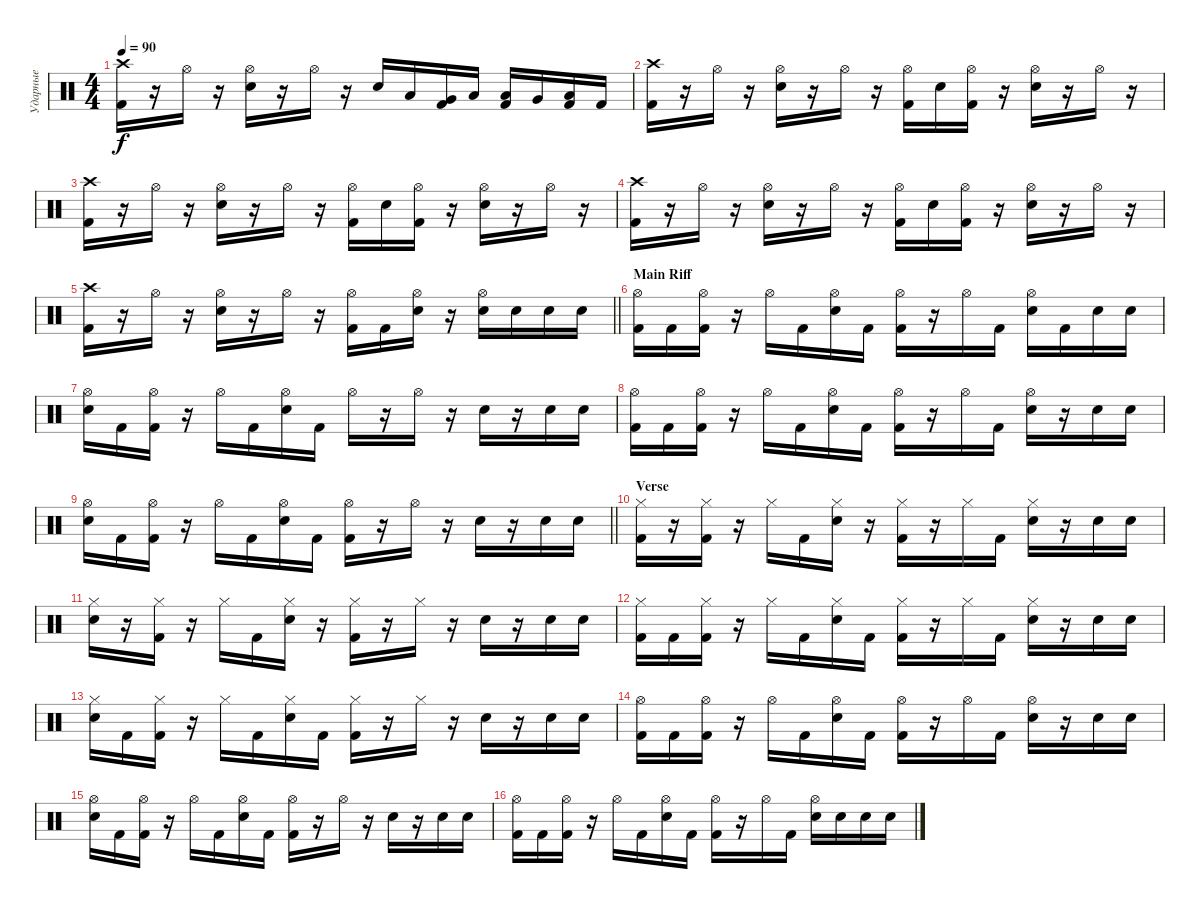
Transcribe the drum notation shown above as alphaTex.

\track ("Ударные" "Ударные") {instrument percussion}
\staff {score}
\articulation defaults
\ts (4 4)
\tempo 90
\clef neutral
\ks c
("Crash high (hit)" "Kick (hit) 2").16{dy f} r.16 "Hi-Hat (open)".16 r.16 ("Hi-Hat (open)" "Snare (hit) 2").16 r.16 "Hi-Hat (open)".16 r.16 "Snare (hit) 2".16 "Low Tom (hit)".16 ("Very Low Tom (hit)" "Kick (hit) 2").16 "Low Floor Tom (hit)".16 ("Low Tom (hit)" "Kick (hit) 2").16 "Very Low Tom (hit)".16 ("Low Floor Tom (hit)" "Kick (hit) 2").16 "Kick (hit) 2".16 |
("Crash high (hit)" "Kick (hit) 2").16 r.16 "Hi-Hat (open)".16 r.16 ("Hi-Hat (open)" "Snare (hit) 2").16 r.16 "Hi-Hat (open)".16 r.16 ("Hi-Hat (open)" "Kick (hit) 2").16 "Snare (hit) 2".16 ("Hi-Hat (open)" "Kick (hit) 2").16 r.16 ("Hi-Hat (open)" "Snare (hit) 2").16 r.16 "Hi-Hat (open)".16 r.16 |
("Crash high (hit)" "Kick (hit) 2").16 r.16 "Hi-Hat (open)".16 r.16 ("Hi-Hat (open)" "Snare (hit) 2").16 r.16 "Hi-Hat (open)".16 r.16 ("Hi-Hat (open)" "Kick (hit) 2").16 "Snare (hit) 2".16 ("Hi-Hat (open)" "Kick (hit) 2").16 r.16 ("Hi-Hat (open)" "Snare (hit) 2").16 r.16 "Hi-Hat (open)".16 r.16 |
("Crash high (hit)" "Kick (hit) 2").16 r.16 "Hi-Hat (open)".16 r.16 ("Hi-Hat (open)" "Snare (hit) 2").16 r.16 "Hi-Hat (open)".16 r.16 ("Hi-Hat (open)" "Kick (hit) 2").16 "Snare (hit) 2".16 ("Hi-Hat (open)" "Kick (hit) 2").16 r.16 ("Hi-Hat (open)" "Snare (hit) 2").16 r.16 "Hi-Hat (open)".16 r.16 |
\barLineRight lightlight
("Crash high (hit)" "Kick (hit) 2").16 r.16 "Hi-Hat (open)".16 r.16 ("Hi-Hat (open)" "Snare (hit) 2").16 r.16 "Hi-Hat (open)".16 r.16 ("Hi-Hat (open)" "Kick (hit) 2").16 "Kick (hit) 2".16 ("Hi-Hat (open)" "Snare (hit) 2").16 r.16 ("Hi-Hat (open)" "Snare (hit) 2").16 "Snare (hit) 2".16 "Snare (hit) 2".16 "Snare (hit) 2".16 |
\section ("" "Main Riff")
("Hi-Hat (open)" "Kick (hit) 2").16 "Kick (hit) 2".16 ("Hi-Hat (open)" "Kick (hit) 2").16 r.16 "Hi-Hat (open)".16 "Kick (hit) 2".16 ("Hi-Hat (open)" "Snare (hit) 2").16 "Kick (hit) 2".16 ("Hi-Hat (open)" "Kick (hit) 2").16 r.16 "Hi-Hat (open)".16 "Kick (hit) 2".16 ("Hi-Hat (open)" "Snare (hit) 2").16 "Kick (hit) 2".16 "Snare (hit) 2".16 "Snare (hit) 2".16 |
("Hi-Hat (open)" "Snare (hit) 2").16 "Kick (hit) 2".16 ("Hi-Hat (open)" "Kick (hit) 2").16 r.16 "Hi-Hat (open)".16 "Kick (hit) 2".16 ("Hi-Hat (open)" "Snare (hit) 2").16 "Kick (hit) 2".16 "Hi-Hat (open)".16 r.16 "Hi-Hat (open)".16 r.16 "Snare (hit) 2".16 r.16 "Snare (hit) 2".16 "Snare (hit) 2".16 |
("Hi-Hat (open)" "Kick (hit) 2").16 "Kick (hit) 2".16 ("Hi-Hat (open)" "Kick (hit) 2").16 r.16 "Hi-Hat (open)".16 "Kick (hit) 2".16 ("Hi-Hat (open)" "Snare (hit) 2").16 "Kick (hit) 2".16 ("Hi-Hat (open)" "Kick (hit) 2").16 r.16 "Hi-Hat (open)".16 "Kick (hit) 2".16 ("Hi-Hat (open)" "Snare (hit) 2").16 r.16 "Snare (hit) 2".16 "Snare (hit) 2".16 |
\barLineRight lightlight
("Hi-Hat (open)" "Snare (hit) 2").16 "Kick (hit) 2".16 ("Hi-Hat (open)" "Kick (hit) 2").16 r.16 "Hi-Hat (open)".16 "Kick (hit) 2".16 ("Hi-Hat (open)" "Snare (hit) 2").16 "Kick (hit) 2".16 ("Hi-Hat (open)" "Kick (hit) 2").16 r.16 "Hi-Hat (open)".16 r.16 "Snare (hit) 2".16 r.16 "Snare (hit) 2".16 "Snare (hit) 2".16 |
\section ("" "Verse")
("Hi-Hat (closed)" "Kick (hit) 2").16 r.16 ("Hi-Hat (closed)" "Kick (hit) 2").16 r.16 "Hi-Hat (closed)".16 "Kick (hit) 2".16 ("Hi-Hat (closed)" "Snare (hit) 2").16 r.16 ("Hi-Hat (closed)" "Kick (hit) 2").16 r.16 "Hi-Hat (closed)".16 "Kick (hit) 2".16 ("Hi-Hat (closed)" "Snare (hit) 2").16 r.16 "Snare (hit) 2".16 "Snare (hit) 2".16 |
("Hi-Hat (closed)" "Snare (hit) 2").16 r.16 ("Hi-Hat (closed)" "Kick (hit) 2").16 r.16 "Hi-Hat (closed)".16 "Kick (hit) 2".16 ("Hi-Hat (closed)" "Snare (hit) 2").16 r.16 ("Hi-Hat (closed)" "Kick (hit) 2").16 r.16 "Hi-Hat (closed)".16 r.16 "Snare (hit) 2".16 r.16 "Snare (hit) 2".16 "Snare (hit) 2".16 |
("Hi-Hat (closed)" "Kick (hit) 2").16 "Kick (hit) 2".16 ("Hi-Hat (closed)" "Kick (hit) 2").16 r.16 "Hi-Hat (closed)".16 "Kick (hit) 2".16 ("Hi-Hat (closed)" "Snare (hit) 2").16 "Kick (hit) 2".16 ("Hi-Hat (closed)" "Kick (hit) 2").16 r.16 "Hi-Hat (closed)".16 "Kick (hit) 2".16 ("Hi-Hat (closed)" "Snare (hit) 2").16 r.16 "Snare (hit) 2".16 "Snare (hit) 2".16 |
("Hi-Hat (closed)" "Snare (hit) 2").16 "Kick (hit) 2".16 ("Hi-Hat (closed)" "Kick (hit) 2").16 r.16 "Hi-Hat (closed)".16 "Kick (hit) 2".16 ("Hi-Hat (closed)" "Snare (hit) 2").16 "Kick (hit) 2".16 ("Hi-Hat (closed)" "Kick (hit) 2").16 r.16 "Hi-Hat (closed)".16 r.16 "Snare (hit) 2".16 r.16 "Snare (hit) 2".16 "Snare (hit) 2".16 |
("Hi-Hat (open)" "Kick (hit) 2").16 "Kick (hit) 2".16 ("Hi-Hat (open)" "Kick (hit) 2").16 r.16 "Hi-Hat (open)".16 "Kick (hit) 2".16 ("Hi-Hat (open)" "Snare (hit) 2").16 "Kick (hit) 2".16 ("Hi-Hat (open)" "Kick (hit) 2").16 r.16 "Hi-Hat (open)".16 "Kick (hit) 2".16 ("Hi-Hat (open)" "Snare (hit) 2").16 r.16 "Snare (hit) 2".16 "Snare (hit) 2".16 |
("Hi-Hat (open)" "Snare (hit) 2").16 "Kick (hit) 2".16 ("Hi-Hat (open)" "Kick (hit) 2").16 r.16 "Hi-Hat (open)".16 "Kick (hit) 2".16 ("Hi-Hat (open)" "Snare (hit) 2").16 "Kick (hit) 2".16 ("Hi-Hat (open)" "Kick (hit) 2").16 r.16 "Hi-Hat (open)".16 r.16 "Snare (hit) 2".16 r.16 "Snare (hit) 2".16 "Snare (hit) 2".16 |
("Hi-Hat (open)" "Kick (hit) 2").16 "Kick (hit) 2".16 ("Hi-Hat (open)" "Kick (hit) 2").16 r.16 "Hi-Hat (open)".16 "Kick (hit) 2".16 ("Hi-Hat (open)" "Snare (hit) 2").16 "Kick (hit) 2".16 ("Hi-Hat (open)" "Kick (hit) 2").16 r.16 "Hi-Hat (open)".16 "Kick (hit) 2".16 ("Hi-Hat (open)" "Snare (hit) 2").16 "Snare (hit) 2".16 "Snare (hit) 2".16 "Snare (hit) 2".16
